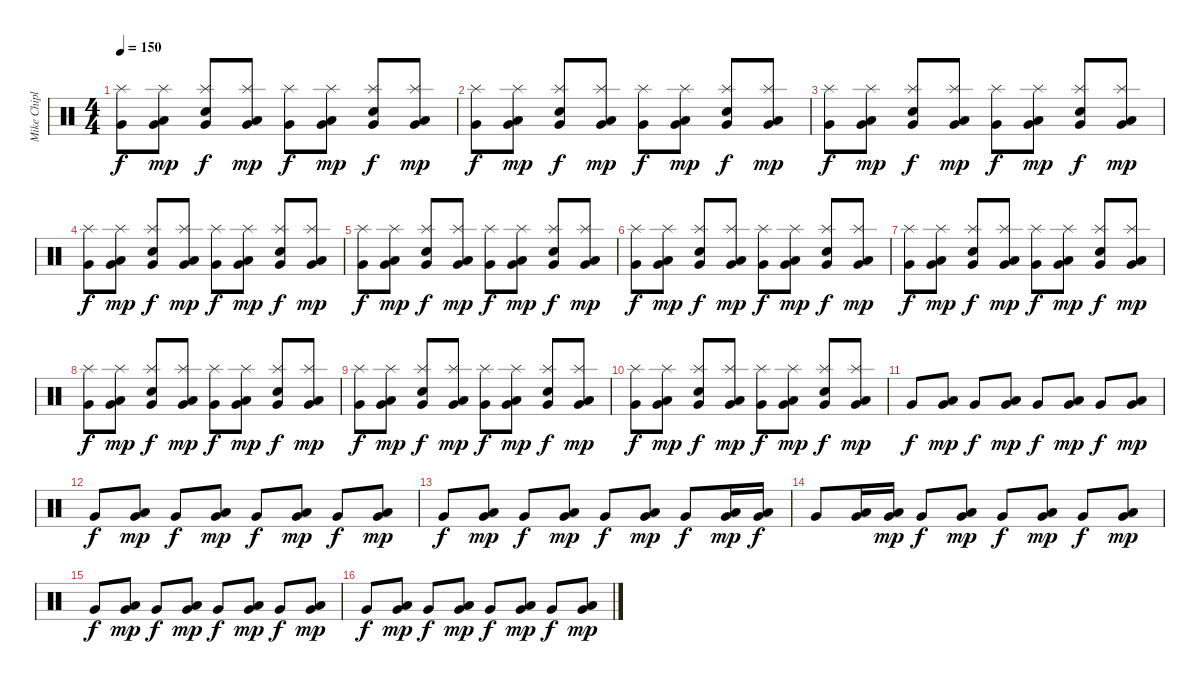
\track ("Mike Chiplin" "Mike Chipl") {instrument percussion}
\staff {score}
\articulation defaults
\ts (4 4)
\tempo 150
\clef neutral
\ks c
("Very Low Tom (hit)" "Splash (hit)").8{dy f} ("Low Floor Tom (hit)" "Very Low Tom (hit)" "Splash (hit)").8{dy mp} ("Very Low Tom (hit)" "Snare (hit) 2" "Splash (hit)").8{dy f} ("Low Floor Tom (hit)" "Very Low Tom (hit)" "Splash (hit)").8{dy mp} ("Very Low Tom (hit)" "Splash (hit)").8{dy f} ("Low Floor Tom (hit)" "Very Low Tom (hit)" "Splash (hit)").8{dy mp} ("Very Low Tom (hit)" "Snare (hit) 2" "Splash (hit)").8{dy f} ("Low Floor Tom (hit)" "Very Low Tom (hit)" "Splash (hit)").8{dy mp} |
("Very Low Tom (hit)" "Splash (hit)").8{dy f} ("Low Floor Tom (hit)" "Very Low Tom (hit)" "Splash (hit)").8{dy mp} ("Very Low Tom (hit)" "Snare (hit) 2" "Splash (hit)").8{dy f} ("Low Floor Tom (hit)" "Very Low Tom (hit)" "Splash (hit)").8{dy mp} ("Very Low Tom (hit)" "Splash (hit)").8{dy f} ("Low Floor Tom (hit)" "Very Low Tom (hit)" "Splash (hit)").8{dy mp} ("Very Low Tom (hit)" "Snare (hit) 2" "Splash (hit)").8{dy f} ("Low Floor Tom (hit)" "Very Low Tom (hit)" "Splash (hit)").8{dy mp} |
("Very Low Tom (hit)" "Splash (hit)").8{dy f} ("Low Floor Tom (hit)" "Very Low Tom (hit)" "Splash (hit)").8{dy mp} ("Very Low Tom (hit)" "Snare (hit) 2" "Splash (hit)").8{dy f} ("Low Floor Tom (hit)" "Very Low Tom (hit)" "Splash (hit)").8{dy mp} ("Very Low Tom (hit)" "Splash (hit)").8{dy f} ("Low Floor Tom (hit)" "Very Low Tom (hit)" "Splash (hit)").8{dy mp} ("Very Low Tom (hit)" "Snare (hit) 2" "Splash (hit)").8{dy f} ("Low Floor Tom (hit)" "Very Low Tom (hit)" "Splash (hit)").8{dy mp} |
("Very Low Tom (hit)" "Splash (hit)").8{dy f} ("Low Floor Tom (hit)" "Very Low Tom (hit)" "Splash (hit)").8{dy mp} ("Very Low Tom (hit)" "Snare (hit) 2" "Splash (hit)").8{dy f} ("Low Floor Tom (hit)" "Very Low Tom (hit)" "Splash (hit)").8{dy mp} ("Very Low Tom (hit)" "Splash (hit)").8{dy f} ("Low Floor Tom (hit)" "Very Low Tom (hit)" "Splash (hit)").8{dy mp} ("Very Low Tom (hit)" "Snare (hit) 2" "Splash (hit)").8{dy f} ("Low Floor Tom (hit)" "Very Low Tom (hit)" "Splash (hit)").8{dy mp} |
("Very Low Tom (hit)" "Splash (hit)").8{dy f} ("Low Floor Tom (hit)" "Very Low Tom (hit)" "Splash (hit)").8{dy mp} ("Very Low Tom (hit)" "Snare (hit) 2" "Splash (hit)").8{dy f} ("Low Floor Tom (hit)" "Very Low Tom (hit)" "Splash (hit)").8{dy mp} ("Very Low Tom (hit)" "Splash (hit)").8{dy f} ("Low Floor Tom (hit)" "Very Low Tom (hit)" "Splash (hit)").8{dy mp} ("Very Low Tom (hit)" "Snare (hit) 2" "Splash (hit)").8{dy f} ("Low Floor Tom (hit)" "Very Low Tom (hit)" "Splash (hit)").8{dy mp} |
("Very Low Tom (hit)" "Splash (hit)").8{dy f} ("Low Floor Tom (hit)" "Very Low Tom (hit)" "Splash (hit)").8{dy mp} ("Very Low Tom (hit)" "Snare (hit) 2" "Splash (hit)").8{dy f} ("Low Floor Tom (hit)" "Very Low Tom (hit)" "Splash (hit)").8{dy mp} ("Very Low Tom (hit)" "Splash (hit)").8{dy f} ("Low Floor Tom (hit)" "Very Low Tom (hit)" "Splash (hit)").8{dy mp} ("Very Low Tom (hit)" "Snare (hit) 2" "Splash (hit)").8{dy f} ("Low Floor Tom (hit)" "Very Low Tom (hit)" "Splash (hit)").8{dy mp} |
("Very Low Tom (hit)" "Splash (hit)").8{dy f} ("Low Floor Tom (hit)" "Very Low Tom (hit)" "Splash (hit)").8{dy mp} ("Very Low Tom (hit)" "Snare (hit) 2" "Splash (hit)").8{dy f} ("Low Floor Tom (hit)" "Very Low Tom (hit)" "Splash (hit)").8{dy mp} ("Very Low Tom (hit)" "Splash (hit)").8{dy f} ("Low Floor Tom (hit)" "Very Low Tom (hit)" "Splash (hit)").8{dy mp} ("Very Low Tom (hit)" "Snare (hit) 2" "Splash (hit)").8{dy f} ("Low Floor Tom (hit)" "Very Low Tom (hit)" "Splash (hit)").8{dy mp} |
("Very Low Tom (hit)" "Splash (hit)").8{dy f} ("Low Floor Tom (hit)" "Very Low Tom (hit)" "Splash (hit)").8{dy mp} ("Very Low Tom (hit)" "Snare (hit) 2" "Splash (hit)").8{dy f} ("Low Floor Tom (hit)" "Very Low Tom (hit)" "Splash (hit)").8{dy mp} ("Very Low Tom (hit)" "Splash (hit)").8{dy f} ("Low Floor Tom (hit)" "Very Low Tom (hit)" "Splash (hit)").8{dy mp} ("Very Low Tom (hit)" "Snare (hit) 2" "Splash (hit)").8{dy f} ("Low Floor Tom (hit)" "Very Low Tom (hit)" "Splash (hit)").8{dy mp} |
("Very Low Tom (hit)" "Splash (hit)").8{dy f} ("Low Floor Tom (hit)" "Very Low Tom (hit)" "Splash (hit)").8{dy mp} ("Very Low Tom (hit)" "Snare (hit) 2" "Splash (hit)").8{dy f} ("Low Floor Tom (hit)" "Very Low Tom (hit)" "Splash (hit)").8{dy mp} ("Very Low Tom (hit)" "Splash (hit)").8{dy f} ("Low Floor Tom (hit)" "Very Low Tom (hit)" "Splash (hit)").8{dy mp} ("Very Low Tom (hit)" "Snare (hit) 2" "Splash (hit)").8{dy f} ("Low Floor Tom (hit)" "Very Low Tom (hit)" "Splash (hit)").8{dy mp} |
("Very Low Tom (hit)" "Splash (hit)").8{dy f} ("Low Floor Tom (hit)" "Very Low Tom (hit)" "Splash (hit)").8{dy mp} ("Very Low Tom (hit)" "Snare (hit) 2" "Splash (hit)").8{dy f} ("Low Floor Tom (hit)" "Very Low Tom (hit)" "Splash (hit)").8{dy mp} ("Very Low Tom (hit)" "Splash (hit)").8{dy f} ("Low Floor Tom (hit)" "Very Low Tom (hit)" "Splash (hit)").8{dy mp} ("Very Low Tom (hit)" "Snare (hit) 2" "Splash (hit)").8{dy f} ("Low Floor Tom (hit)" "Very Low Tom (hit)" "Splash (hit)").8{dy mp} |
"Very Low Tom (hit)".8{dy f} ("Low Floor Tom (hit)" "Very Low Tom (hit)").8{dy mp} "Very Low Tom (hit)".8{dy f} ("Low Floor Tom (hit)" "Very Low Tom (hit)").8{dy mp} "Very Low Tom (hit)".8{dy f} ("Low Floor Tom (hit)" "Very Low Tom (hit)").8{dy mp} "Very Low Tom (hit)".8{dy f} ("Low Floor Tom (hit)" "Very Low Tom (hit)").8{dy mp} |
"Very Low Tom (hit)".8{dy f} ("Low Floor Tom (hit)" "Very Low Tom (hit)").8{dy mp} "Very Low Tom (hit)".8{dy f} ("Low Floor Tom (hit)" "Very Low Tom (hit)").8{dy mp} "Very Low Tom (hit)".8{dy f} ("Low Floor Tom (hit)" "Very Low Tom (hit)").8{dy mp} "Very Low Tom (hit)".8{dy f} ("Low Floor Tom (hit)" "Very Low Tom (hit)").8{dy mp} |
"Very Low Tom (hit)".8{dy f} ("Low Floor Tom (hit)" "Very Low Tom (hit)").8{dy mp} "Very Low Tom (hit)".8{dy f} ("Low Floor Tom (hit)" "Very Low Tom (hit)").8{dy mp} "Very Low Tom (hit)".8{dy f} ("Low Floor Tom (hit)" "Very Low Tom (hit)").8{dy mp} "Very Low Tom (hit)".8{dy f} ("Low Floor Tom (hit)" "Very Low Tom (hit)").16{dy mp} ("Low Floor Tom (hit)" "Very Low Tom (hit)").16{dy f} |
"Very Low Tom (hit)".8 ("Low Floor Tom (hit)" "Very Low Tom (hit)").16 ("Low Floor Tom (hit)" "Very Low Tom (hit)").16{dy mp} "Very Low Tom (hit)".8{dy f} ("Low Floor Tom (hit)" "Very Low Tom (hit)").8{dy mp} "Very Low Tom (hit)".8{dy f} ("Low Floor Tom (hit)" "Very Low Tom (hit)").8{dy mp} "Very Low Tom (hit)".8{dy f} ("Low Floor Tom (hit)" "Very Low Tom (hit)").8{dy mp} |
"Very Low Tom (hit)".8{dy f} ("Low Floor Tom (hit)" "Very Low Tom (hit)").8{dy mp} "Very Low Tom (hit)".8{dy f} ("Low Floor Tom (hit)" "Very Low Tom (hit)").8{dy mp} "Very Low Tom (hit)".8{dy f} ("Low Floor Tom (hit)" "Very Low Tom (hit)").8{dy mp} "Very Low Tom (hit)".8{dy f} ("Low Floor Tom (hit)" "Very Low Tom (hit)").8{dy mp} |
"Very Low Tom (hit)".8{dy f} ("Low Floor Tom (hit)" "Very Low Tom (hit)").8{dy mp} "Very Low Tom (hit)".8{dy f} ("Low Floor Tom (hit)" "Very Low Tom (hit)").8{dy mp} "Very Low Tom (hit)".8{dy f} ("Low Floor Tom (hit)" "Very Low Tom (hit)").8{dy mp} "Very Low Tom (hit)".8{dy f} ("Low Floor Tom (hit)" "Very Low Tom (hit)").8{dy mp}
